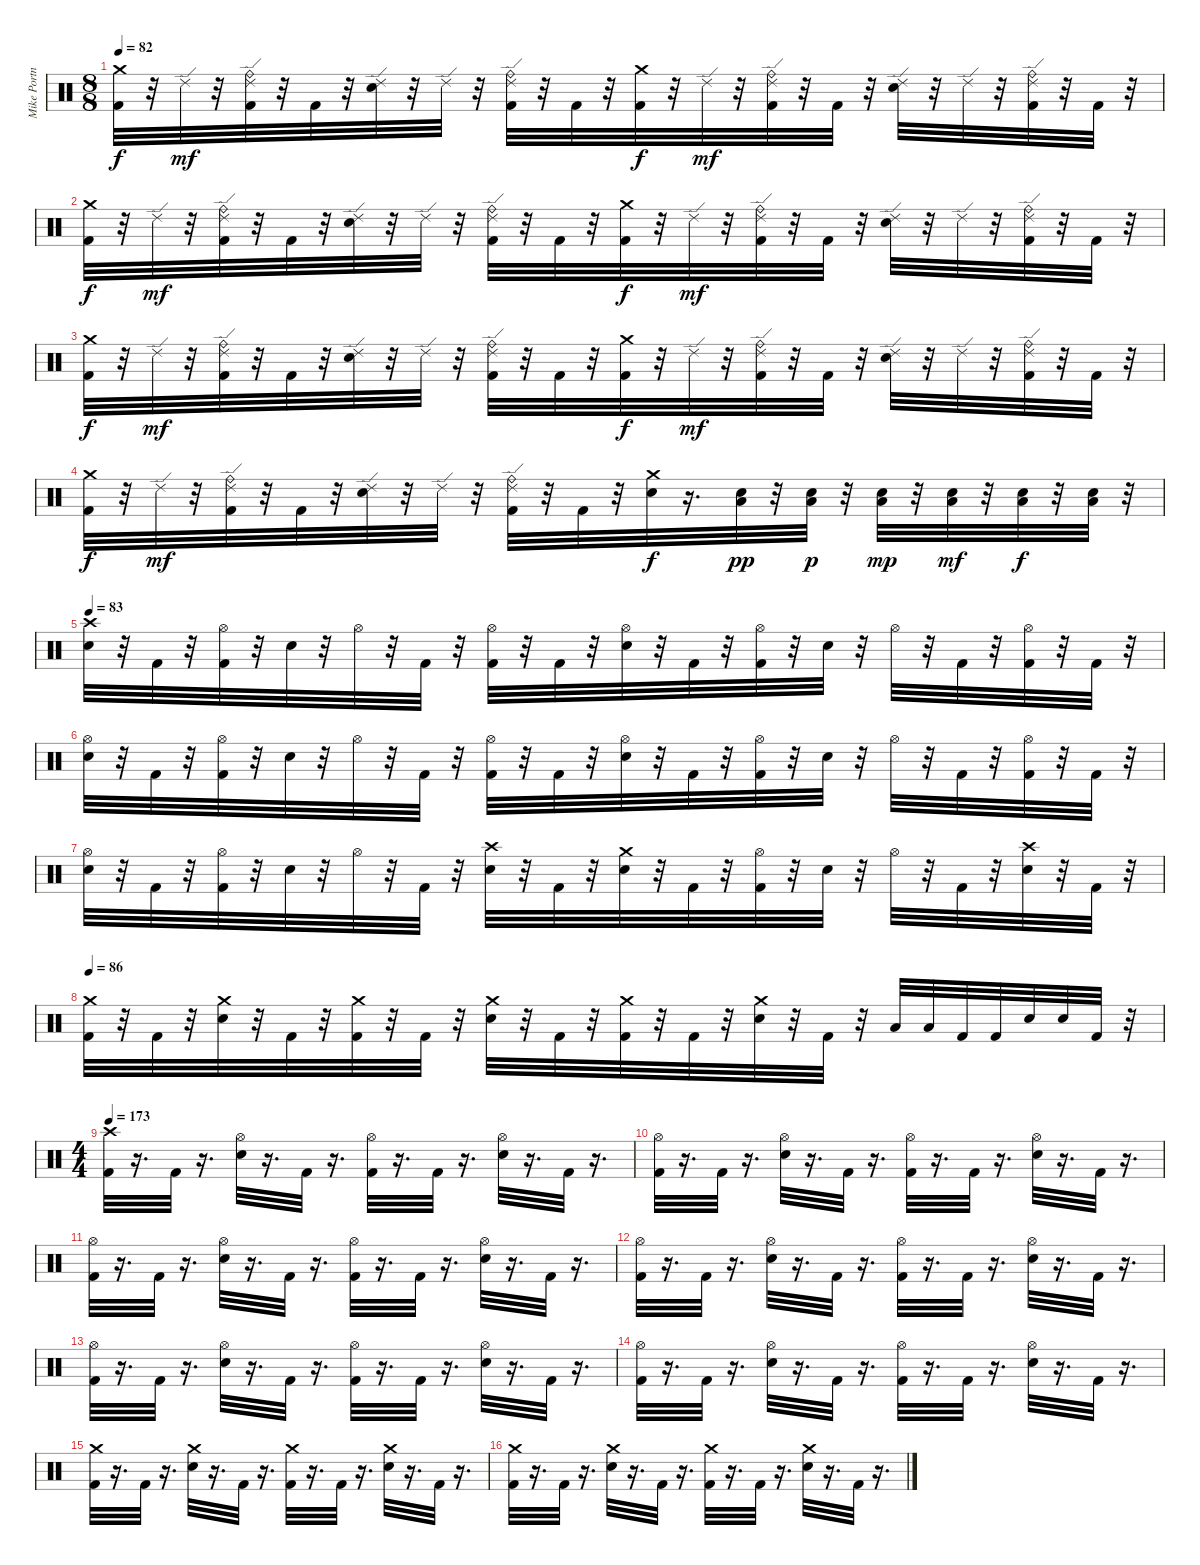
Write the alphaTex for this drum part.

\track ("Mike Portnoy" "Mike Portn") {instrument percussion}
\staff {score}
\articulation defaults
\ts (8 8)
\tempo 82
\clef neutral
\ks c
("Crash medium (hit)" "Kick (hit) 2").32{dy f} r.32 "Ride (edge) 2".32{dy mf} r.32 ("Ride (bell)" "Ride (edge) 2" "Kick (hit) 2").32 r.32 "Kick (hit) 2".32 r.32 ("Ride (edge) 2" "Snare (hit) 2").32 r.32 "Ride (edge) 2".32 r.32 ("Ride (bell)" "Ride (edge) 2" "Kick (hit) 2").32 r.32 "Kick (hit) 2".32 r.32 ("Crash medium (hit)" "Kick (hit) 2").32{dy f} r.32 "Ride (edge) 2".32{dy mf} r.32 ("Ride (bell)" "Ride (edge) 2" "Kick (hit) 2").32 r.32 "Kick (hit) 2".32 r.32 ("Ride (edge) 2" "Snare (hit) 2").32 r.32 "Ride (edge) 2".32 r.32 ("Ride (bell)" "Ride (edge) 2" "Kick (hit) 2").32 r.32 "Kick (hit) 2".32 r.32 |
("Crash medium (hit)" "Kick (hit) 2").32{dy f} r.32 "Ride (edge) 2".32{dy mf} r.32 ("Ride (bell)" "Ride (edge) 2" "Kick (hit) 2").32 r.32 "Kick (hit) 2".32 r.32 ("Ride (edge) 2" "Snare (hit) 2").32 r.32 "Ride (edge) 2".32 r.32 ("Ride (bell)" "Ride (edge) 2" "Kick (hit) 2").32 r.32 "Kick (hit) 2".32 r.32 ("Crash medium (hit)" "Kick (hit) 2").32{dy f} r.32 "Ride (edge) 2".32{dy mf} r.32 ("Ride (bell)" "Ride (edge) 2" "Kick (hit) 2").32 r.32 "Kick (hit) 2".32 r.32 ("Ride (edge) 2" "Snare (hit) 2").32 r.32 "Ride (edge) 2".32 r.32 ("Ride (bell)" "Ride (edge) 2" "Kick (hit) 2").32 r.32 "Kick (hit) 2".32 r.32 |
("Crash medium (hit)" "Kick (hit) 2").32{dy f} r.32 "Ride (edge) 2".32{dy mf} r.32 ("Ride (bell)" "Ride (edge) 2" "Kick (hit) 2").32 r.32 "Kick (hit) 2".32 r.32 ("Ride (edge) 2" "Snare (hit) 2").32 r.32 "Ride (edge) 2".32 r.32 ("Ride (bell)" "Ride (edge) 2" "Kick (hit) 2").32 r.32 "Kick (hit) 2".32 r.32 ("Crash medium (hit)" "Kick (hit) 2").32{dy f} r.32 "Ride (edge) 2".32{dy mf} r.32 ("Ride (bell)" "Ride (edge) 2" "Kick (hit) 2").32 r.32 "Kick (hit) 2".32 r.32 ("Ride (edge) 2" "Snare (hit) 2").32 r.32 "Ride (edge) 2".32 r.32 ("Ride (bell)" "Ride (edge) 2" "Kick (hit) 2").32 r.32 "Kick (hit) 2".32 r.32 |
("Crash medium (hit)" "Kick (hit) 2").32{dy f} r.32 "Ride (edge) 2".32{dy mf} r.32 ("Ride (bell)" "Ride (edge) 2" "Kick (hit) 2").32 r.32 "Kick (hit) 2".32 r.32 ("Ride (edge) 2" "Snare (hit) 2").32 r.32 "Ride (edge) 2".32 r.32 ("Ride (bell)" "Ride (edge) 2" "Kick (hit) 2").32 r.32 "Kick (hit) 2".32 r.32 ("Snare (hit) 2" "Crash medium (hit)").32{dy f} r.16{d} ("Low Floor Tom (hit)" "Snare (hit) 2").32{dy pp} r.32 ("Low Floor Tom (hit)" "Snare (hit) 2").32{dy p} r.32 ("Low Floor Tom (hit)" "Snare (hit) 2").32{dy mp} r.32 ("Low Floor Tom (hit)" "Snare (hit) 2").32{dy mf} r.32 ("Low Floor Tom (hit)" "Snare (hit) 2").32{dy f} r.32 ("Low Floor Tom (hit)" "Snare (hit) 2").32 r.32 |
\tempo 83
("Crash high (hit)" "Snare (hit) 2").32 r.32 "Kick (hit) 2".32 r.32 ("Hi-Hat (open)" "Kick (hit) 2").32 r.32 "Snare (hit) 2".32 r.32 "Hi-Hat (open)".32 r.32 "Kick (hit) 2".32 r.32 ("Kick (hit) 2" "Hi-Hat (open)").32 r.32 "Kick (hit) 2".32 r.32 ("Snare (hit) 2" "Hi-Hat (open)").32 r.32 "Kick (hit) 2".32 r.32 ("Kick (hit) 2" "Hi-Hat (open)").32 r.32 "Snare (hit) 2".32 r.32 "Hi-Hat (open)".32 r.32 "Kick (hit) 2".32 r.32 ("Kick (hit) 2" "Hi-Hat (open)").32 r.32 "Kick (hit) 2".32 r.32 |
("Hi-Hat (open)" "Snare (hit) 2").32 r.32 "Kick (hit) 2".32 r.32 ("Hi-Hat (open)" "Kick (hit) 2").32 r.32 "Snare (hit) 2".32 r.32 "Hi-Hat (open)".32 r.32 "Kick (hit) 2".32 r.32 ("Kick (hit) 2" "Hi-Hat (open)").32 r.32 "Kick (hit) 2".32 r.32 ("Snare (hit) 2" "Hi-Hat (open)").32 r.32 "Kick (hit) 2".32 r.32 ("Kick (hit) 2" "Hi-Hat (open)").32 r.32 "Snare (hit) 2".32 r.32 "Hi-Hat (open)".32 r.32 "Kick (hit) 2".32 r.32 ("Kick (hit) 2" "Hi-Hat (open)").32 r.32 "Kick (hit) 2".32 r.32 |
("Hi-Hat (open)" "Snare (hit) 2").32 r.32 "Kick (hit) 2".32 r.32 ("Hi-Hat (open)" "Kick (hit) 2").32 r.32 "Snare (hit) 2".32 r.32 "Hi-Hat (open)".32 r.32 "Kick (hit) 2".32 r.32 ("Snare (hit) 2" "Crash high (hit)").32 r.32 "Kick (hit) 2".32 r.32 ("Crash medium (hit)" "Snare (hit) 2").32 r.32 "Kick (hit) 2".32 r.32 ("Kick (hit) 2" "Hi-Hat (open)").32 r.32 "Snare (hit) 2".32 r.32 "Hi-Hat (open)".32 r.32 "Kick (hit) 2".32 r.32 ("Crash high (hit)" "Snare (hit) 2").32 r.32 "Kick (hit) 2".32 r.32 |
\tempo 86
("Kick (hit) 2" "Crash medium (hit)").32 r.32 "Kick (hit) 2".32 r.32 ("Crash medium (hit)" "Snare (hit) 2").32 r.32 "Kick (hit) 2".32 r.32 ("Kick (hit) 2" "Crash medium (hit)").32 r.32 "Kick (hit) 2".32 r.32 ("Crash medium (hit)" "Snare (hit) 2").32 r.32 "Kick (hit) 2".32 r.32 ("Kick (hit) 2" "Crash medium (hit)").32 r.32 "Kick (hit) 2".32 r.32 ("Crash medium (hit)" "Snare (hit) 2").32 r.32 "Kick (hit) 2".32 r.32 "Low Tom (hit)".32 "Low Tom (hit)".32 "Kick (hit) 2".32 "Kick (hit) 2".32 "Snare (hit) 2".32 "Snare (hit) 2".32 "Kick (hit) 2".32 r.32 |
\ts (4 4)
\tempo 173
("Crash high (hit)" "Kick (hit) 2").32 r.16{d} "Kick (hit) 2".32 r.16{d} ("Hi-Hat (open)" "Snare (hit) 2").32 r.16{d} "Kick (hit) 2".32 r.16{d} ("Hi-Hat (open)" "Kick (hit) 2").32 r.16{d} "Kick (hit) 2".32 r.16{d} ("Hi-Hat (open)" "Snare (hit) 2").32 r.16{d} "Kick (hit) 2".32 r.16{d} |
("Hi-Hat (open)" "Kick (hit) 2").32 r.16{d} "Kick (hit) 2".32 r.16{d} ("Snare (hit) 2" "Hi-Hat (open)").32 r.16{d} "Kick (hit) 2".32 r.16{d} ("Kick (hit) 2" "Hi-Hat (open)").32 r.16{d} "Kick (hit) 2".32 r.16{d} ("Snare (hit) 2" "Hi-Hat (open)").32 r.16{d} "Kick (hit) 2".32 r.16{d} |
("Hi-Hat (open)" "Kick (hit) 2").32 r.16{d} "Kick (hit) 2".32 r.16{d} ("Snare (hit) 2" "Hi-Hat (open)").32 r.16{d} "Kick (hit) 2".32 r.16{d} ("Kick (hit) 2" "Hi-Hat (open)").32 r.16{d} "Kick (hit) 2".32 r.16{d} ("Snare (hit) 2" "Hi-Hat (open)").32 r.16{d} "Kick (hit) 2".32 r.16{d} |
("Hi-Hat (open)" "Kick (hit) 2").32 r.16{d} "Kick (hit) 2".32 r.16{d} ("Snare (hit) 2" "Hi-Hat (open)").32 r.16{d} "Kick (hit) 2".32 r.16{d} ("Kick (hit) 2" "Hi-Hat (open)").32 r.16{d} "Kick (hit) 2".32 r.16{d} ("Snare (hit) 2" "Hi-Hat (open)").32 r.16{d} "Kick (hit) 2".32 r.16{d} |
("Hi-Hat (open)" "Kick (hit) 2").32 r.16{d} "Kick (hit) 2".32 r.16{d} ("Snare (hit) 2" "Hi-Hat (open)").32 r.16{d} "Kick (hit) 2".32 r.16{d} ("Kick (hit) 2" "Hi-Hat (open)").32 r.16{d} "Kick (hit) 2".32 r.16{d} ("Snare (hit) 2" "Hi-Hat (open)").32 r.16{d} "Kick (hit) 2".32 r.16{d} |
("Hi-Hat (open)" "Kick (hit) 2").32 r.16{d} "Kick (hit) 2".32 r.16{d} ("Snare (hit) 2" "Hi-Hat (open)").32 r.16{d} "Kick (hit) 2".32 r.16{d} ("Kick (hit) 2" "Hi-Hat (open)").32 r.16{d} "Kick (hit) 2".32 r.16{d} ("Snare (hit) 2" "Hi-Hat (open)").32 r.16{d} "Kick (hit) 2".32 r.16{d} |
("Crash medium (hit)" "Kick (hit) 2").32 r.16{d} "Kick (hit) 2".32 r.16{d} ("Crash medium (hit)" "Snare (hit) 2").32 r.16{d} "Kick (hit) 2".32 r.16{d} ("Crash medium (hit)" "Kick (hit) 2").32 r.16{d} "Kick (hit) 2".32 r.16{d} ("Crash medium (hit)" "Snare (hit) 2").32 r.16{d} "Kick (hit) 2".32 r.16{d} |
("Crash medium (hit)" "Kick (hit) 2").32 r.16{d} "Kick (hit) 2".32 r.16{d} ("Crash medium (hit)" "Snare (hit) 2").32 r.16{d} "Kick (hit) 2".32 r.16{d} ("Crash medium (hit)" "Kick (hit) 2").32 r.16{d} "Kick (hit) 2".32 r.16{d} ("Crash medium (hit)" "Snare (hit) 2").32 r.16{d} "Kick (hit) 2".32 r.16{d}
